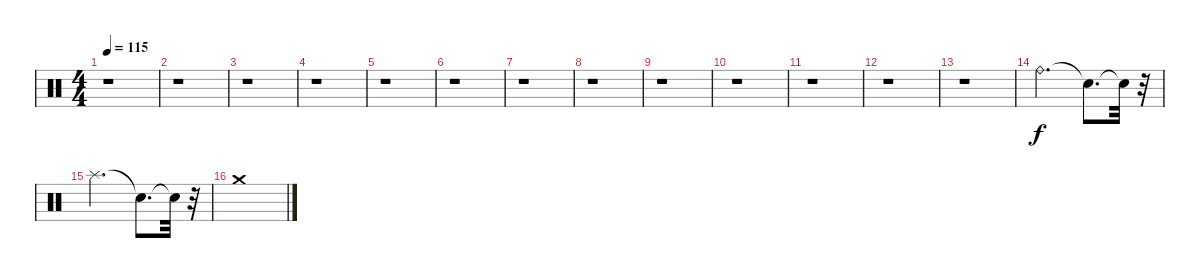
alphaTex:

\track "" {instrument percussion}
\staff {score}
\articulation defaults
\ts (4 4)
\tempo 115
\clef neutral
\ks c
r.1{dy f} |
r.1 |
r.1 |
r.1 |
r.1 |
r.1 |
r.1 |
r.1 |
r.1 |
r.1 |
r.1 |
r.1 |
r.1 |
"Ride (bell)".2{d} "Snare (hit)"{t}.8{d} "Snare (hit)"{t}.32 r.32 |
"Splash (hit)".2{d} "Snare (hit)"{t}.8{d} "Snare (hit)"{t}.32 r.32 |
"Crash medium (hit)".1
